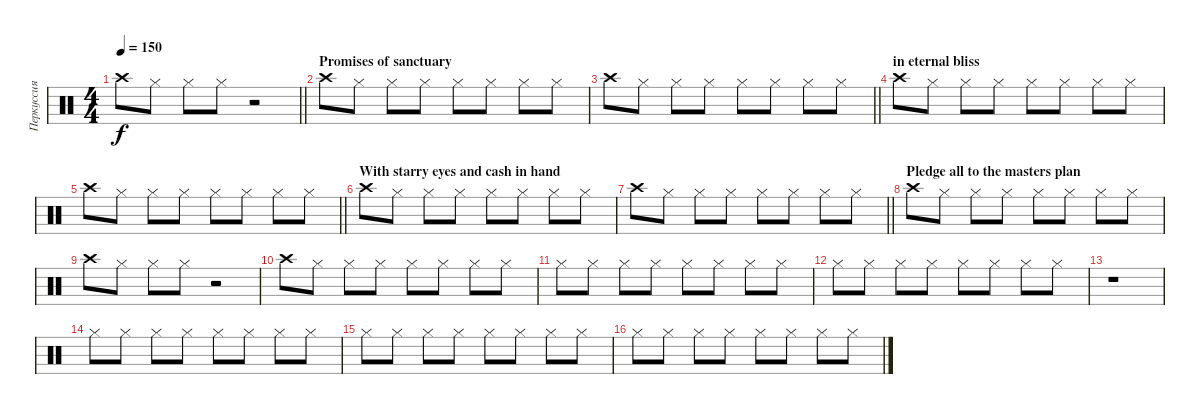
\track ("Перкуссия" "Перкуссия") {instrument percussion}
\staff {score}
\articulation defaults
\ts (4 4)
\tempo 150
\clef neutral
\barLineRight lightlight
\ks c "Crash high (hit)".8{dy f beam Down} "Hi-Hat (closed)".8{beam Down} "Hi-Hat (closed)".8{beam Down} "Hi-Hat (closed)".8{beam Down}
r.2{beam Up} |
\section ("" "Promises of sanctuary")
"Crash high (hit)".8{beam Down} "Hi-Hat (closed)".8{beam Down} "Hi-Hat (closed)".8{beam Down} "Hi-Hat (closed)".8{beam Down} "Hi-Hat (closed)".8{beam Down} "Hi-Hat (closed)".8{beam Down} "Hi-Hat (closed)".8{beam Down} "Hi-Hat (closed)".8{beam Down} |
\barLineRight lightlight "Crash high (hit)".8{beam Down} "Hi-Hat (closed)".8{beam Down} "Hi-Hat (closed)".8{beam Down} "Hi-Hat (closed)".8{beam Down} "Hi-Hat (closed)".8{beam Down} "Hi-Hat (closed)".8{beam Down} "Hi-Hat (closed)".8{beam Down} "Hi-Hat (closed)".8{beam Down}
|
\section ("" "in eternal bliss")
"Crash high (hit)".8{beam Down} "Hi-Hat (closed)".8{beam Down} "Hi-Hat (closed)".8{beam Down} "Hi-Hat (closed)".8{beam Down} "Hi-Hat (closed)".8{beam Down} "Hi-Hat (closed)".8{beam Down} "Hi-Hat (closed)".8{beam Down} "Hi-Hat (closed)".8{beam Down} |
\barLineRight lightlight "Crash high (hit)".8{beam Down} "Hi-Hat (closed)".8{beam Down} "Hi-Hat (closed)".8{beam Down} "Hi-Hat (closed)".8{beam Down} "Hi-Hat (closed)".8{beam Down} "Hi-Hat (closed)".8{beam Down} "Hi-Hat (closed)".8{beam Down} "Hi-Hat (closed)".8{beam Down}
|
\section ("" "With starry eyes and cash in hand")
"Crash high (hit)".8{beam Down} "Hi-Hat (closed)".8{beam Down} "Hi-Hat (closed)".8{beam Down} "Hi-Hat (closed)".8{beam Down} "Hi-Hat (closed)".8{beam Down} "Hi-Hat (closed)".8{beam Down} "Hi-Hat (closed)".8{beam Down} "Hi-Hat (closed)".8{beam Down} |
\barLineRight lightlight "Crash high (hit)".8{beam Down} "Hi-Hat (closed)".8{beam Down} "Hi-Hat (closed)".8{beam Down} "Hi-Hat (closed)".8{beam Down} "Hi-Hat (closed)".8{beam Down} "Hi-Hat (closed)".8{beam Down} "Hi-Hat (closed)".8{beam Down} "Hi-Hat (closed)".8{beam Down}
|
\section ("" "Pledge all to the masters plan")
"Crash high (hit)".8{beam Down} "Hi-Hat (closed)".8{beam Down} "Hi-Hat (closed)".8{beam Down} "Hi-Hat (closed)".8{beam Down} "Hi-Hat (closed)".8{beam Down} "Hi-Hat (closed)".8{beam Down} "Hi-Hat (closed)".8{beam Down} "Hi-Hat (closed)".8{beam Down} |
"Crash high (hit)".8{beam Down} "Hi-Hat (closed)".8{beam Down} "Hi-Hat (closed)".8{beam Down} "Hi-Hat (closed)".8{beam Down} r.2{beam Up} |
"Crash high (hit)".8 "Hi-Hat (closed)".8 "Hi-Hat (closed)".8 "Hi-Hat (closed)".8 "Hi-Hat (closed)".8 "Hi-Hat (closed)".8 "Hi-Hat (closed)".8 "Hi-Hat (closed)".8 |
"Hi-Hat (closed)".8 "Hi-Hat (closed)".8 "Hi-Hat (closed)".8 "Hi-Hat (closed)".8 "Hi-Hat (closed)".8 "Hi-Hat (closed)".8 "Hi-Hat (closed)".8 "Hi-Hat (closed)".8 |
"Hi-Hat (closed)".8 "Hi-Hat (closed)".8 "Hi-Hat (closed)".8 "Hi-Hat (closed)".8 "Hi-Hat (closed)".8 "Hi-Hat (closed)".8 "Hi-Hat (closed)".8 "Hi-Hat (closed)".8 |
r.1 |
"Hi-Hat (closed)".8 "Hi-Hat (closed)".8 "Hi-Hat (closed)".8 "Hi-Hat (closed)".8 "Hi-Hat (closed)".8 "Hi-Hat (closed)".8 "Hi-Hat (closed)".8 "Hi-Hat (closed)".8 |
"Hi-Hat (closed)".8 "Hi-Hat (closed)".8 "Hi-Hat (closed)".8 "Hi-Hat (closed)".8 "Hi-Hat (closed)".8 "Hi-Hat (closed)".8 "Hi-Hat (closed)".8 "Hi-Hat (closed)".8 |
"Hi-Hat (closed)".8 "Hi-Hat (closed)".8 "Hi-Hat (closed)".8 "Hi-Hat (closed)".8 "Hi-Hat (closed)".8 "Hi-Hat (closed)".8 "Hi-Hat (closed)".8 "Hi-Hat (closed)".8
